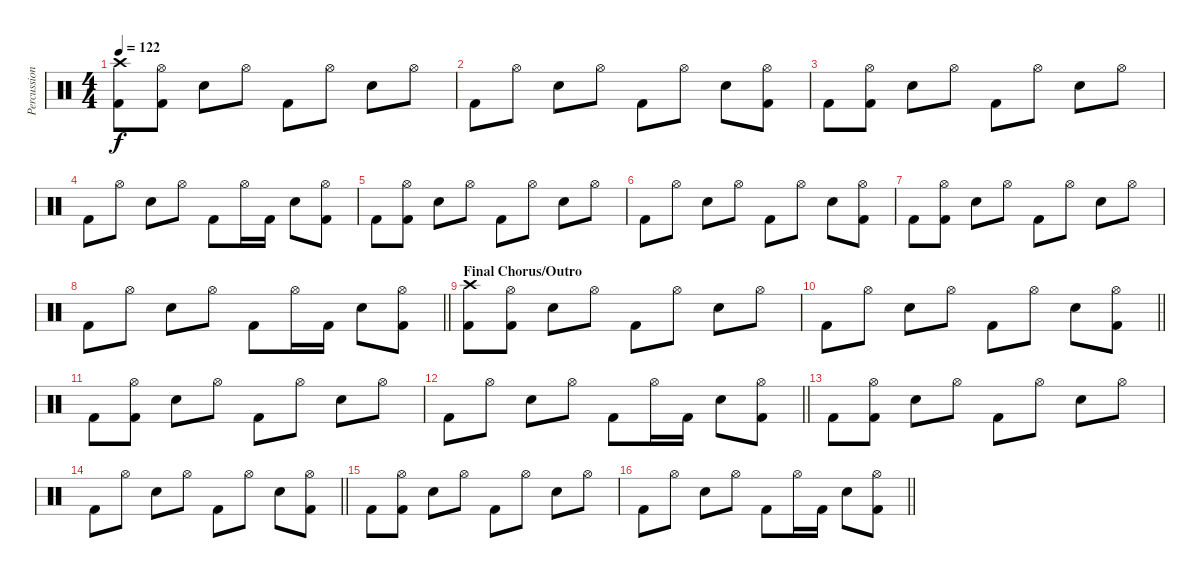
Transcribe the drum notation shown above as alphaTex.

\track ("Percussion" "Percussion") {instrument percussion}
\staff {score}
\articulation defaults
\ts (4 4)
\tempo 122
\clef neutral
\ks c
("Crash high (hit)" "Kick (hit) 2").8{dy f} ("Hi-Hat (open)" "Kick (hit) 2").8 "Electric Snare (hit)".8 "Hi-Hat (open)".8 "Kick (hit) 2".8 "Hi-Hat (open)".8 "Electric Snare (hit)".8 "Hi-Hat (open)".8 |
"Kick (hit) 2".8 "Hi-Hat (open)".8 "Electric Snare (hit)".8 "Hi-Hat (open)".8 "Kick (hit) 2".8 "Hi-Hat (open)".8 "Electric Snare (hit)".8 ("Hi-Hat (open)" "Kick (hit) 2").8 |
"Kick (hit) 2".8 ("Hi-Hat (open)" "Kick (hit) 2").8 "Electric Snare (hit)".8 "Hi-Hat (open)".8 "Kick (hit) 2".8 "Hi-Hat (open)".8 "Electric Snare (hit)".8 "Hi-Hat (open)".8 |
"Kick (hit) 2".8 "Hi-Hat (open)".8 "Electric Snare (hit)".8 "Hi-Hat (open)".8 "Kick (hit) 2".8 "Hi-Hat (open)".16 "Kick (hit) 2".16 "Electric Snare (hit)".8 ("Hi-Hat (open)" "Kick (hit) 2").8 |
"Kick (hit) 2".8 ("Hi-Hat (open)" "Kick (hit) 2").8 "Electric Snare (hit)".8 "Hi-Hat (open)".8 "Kick (hit) 2".8 "Hi-Hat (open)".8 "Electric Snare (hit)".8 "Hi-Hat (open)".8 |
"Kick (hit) 2".8 "Hi-Hat (open)".8 "Electric Snare (hit)".8 "Hi-Hat (open)".8 "Kick (hit) 2".8 "Hi-Hat (open)".8 "Electric Snare (hit)".8 ("Hi-Hat (open)" "Kick (hit) 2").8 |
"Kick (hit) 2".8 ("Hi-Hat (open)" "Kick (hit) 2").8 "Electric Snare (hit)".8 "Hi-Hat (open)".8 "Kick (hit) 2".8 "Hi-Hat (open)".8 "Electric Snare (hit)".8 "Hi-Hat (open)".8 |
\barLineRight lightlight "Kick (hit) 2".8 "Hi-Hat (open)".8 "Electric Snare (hit)".8 "Hi-Hat (open)".8 "Kick (hit) 2".8 "Hi-Hat (open)".16 "Kick (hit) 2".16 "Electric Snare (hit)".8
("Hi-Hat (open)" "Kick (hit) 2").8 |
\section ("" "Final Chorus/Outro")
("Crash high (hit)" "Kick (hit) 2").8 ("Hi-Hat (open)" "Kick (hit) 2").8 "Electric Snare (hit)".8 "Hi-Hat (open)".8 "Kick (hit) 2".8 "Hi-Hat (open)".8 "Electric Snare (hit)".8 "Hi-Hat (open)".8 |
\barLineRight lightlight "Kick (hit) 2".8 "Hi-Hat (open)".8 "Electric Snare (hit)".8 "Hi-Hat (open)".8 "Kick (hit) 2".8 "Hi-Hat (open)".8 "Electric Snare (hit)".8
("Hi-Hat (open)" "Kick (hit) 2").8 |
"Kick (hit) 2".8 ("Hi-Hat (open)" "Kick (hit) 2").8 "Electric Snare (hit)".8 "Hi-Hat (open)".8 "Kick (hit) 2".8 "Hi-Hat (open)".8 "Electric Snare (hit)".8 "Hi-Hat (open)".8 |
\barLineRight lightlight "Kick (hit) 2".8 "Hi-Hat (open)".8 "Electric Snare (hit)".8 "Hi-Hat (open)".8 "Kick (hit) 2".8 "Hi-Hat (open)".16 "Kick (hit) 2".16 "Electric Snare (hit)".8
("Hi-Hat (open)" "Kick (hit) 2").8 |
"Kick (hit) 2".8 ("Hi-Hat (open)" "Kick (hit) 2").8 "Electric Snare (hit)".8 "Hi-Hat (open)".8 "Kick (hit) 2".8 "Hi-Hat (open)".8 "Electric Snare (hit)".8 "Hi-Hat (open)".8 |
\barLineRight lightlight "Kick (hit) 2".8 "Hi-Hat (open)".8 "Electric Snare (hit)".8 "Hi-Hat (open)".8 "Kick (hit) 2".8 "Hi-Hat (open)".8 "Electric Snare (hit)".8
("Hi-Hat (open)" "Kick (hit) 2").8 |
"Kick (hit) 2".8 ("Hi-Hat (open)" "Kick (hit) 2").8 "Electric Snare (hit)".8 "Hi-Hat (open)".8 "Kick (hit) 2".8 "Hi-Hat (open)".8 "Electric Snare (hit)".8 "Hi-Hat (open)".8 |
\barLineRight lightlight "Kick (hit) 2".8 "Hi-Hat (open)".8 "Electric Snare (hit)".8 "Hi-Hat (open)".8 "Kick (hit) 2".8 "Hi-Hat (open)".16 "Kick (hit) 2".16 "Electric Snare (hit)".8
("Hi-Hat (open)" "Kick (hit) 2").8
